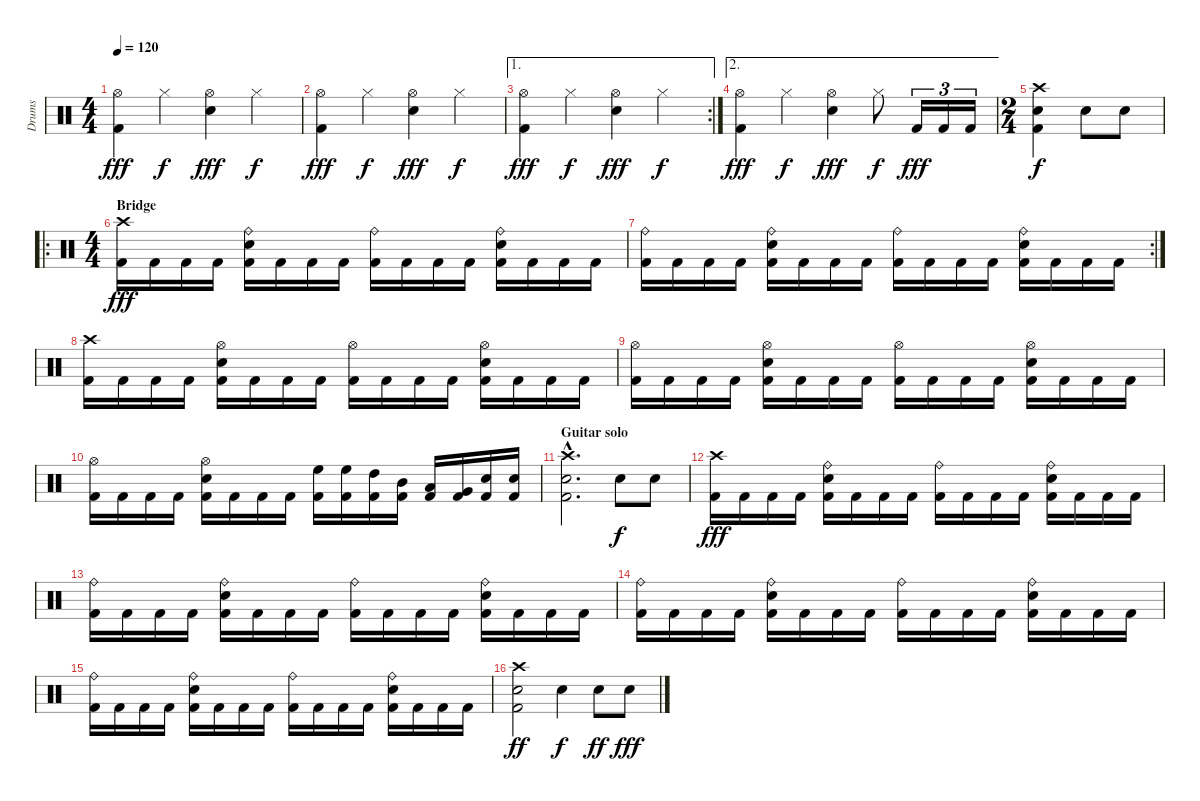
\track ("Drums" "Drums") {instrument percussion}
\staff {score}
\articulation defaults
\ts (4 4)
\tempo 120
\clef neutral
\ks c
("Hi-Hat (open)" "Kick (hit) 2").4{dy fff} "Hi-Hat (closed)".4{dy f} ("Hi-Hat (open)" "Electric Snare (hit)").4{dy fff} "Hi-Hat (closed)".4{dy f} |
("Hi-Hat (open)" "Kick (hit) 2").4{dy fff} "Hi-Hat (closed)".4{dy f} ("Hi-Hat (open)" "Electric Snare (hit)").4{dy fff} "Hi-Hat (closed)".4{dy f} |
\ae 1
\rc 2
("Hi-Hat (open)" "Kick (hit) 2").4{dy fff} "Hi-Hat (closed)".4{dy f} ("Hi-Hat (open)" "Electric Snare (hit)").4{dy fff} "Hi-Hat (closed)".4{dy f} |
\ae 2
("Hi-Hat (open)" "Kick (hit) 2").4{dy fff} "Hi-Hat (closed)".4{dy f} ("Hi-Hat (open)" "Electric Snare (hit)").4{dy fff} "Hi-Hat (closed)".8{dy f} "Kick (hit) 2".16{tu (3 2) dy fff} "Kick (hit) 2".16{tu (3 2)} "Kick (hit) 2".16{tu (3 2)} |
\ts (2 4)
("Crash high (hit)" "Kick (hit) 2" "Electric Snare (hit)").4{dy f} "Electric Snare (hit)".8 "Electric Snare (hit)".8 |
\ro
\ts (4 4)
\section ("" "Bridge")
("Kick (hit) 2" "Crash high (hit)").16{dy fff} "Kick (hit) 2".16 "Kick (hit) 2".16 "Kick (hit) 2".16 ("Kick (hit) 2" "Electric Snare (hit)" "Ride (bell)").16 "Kick (hit) 2".16 "Kick (hit) 2".16 "Kick (hit) 2".16 ("Kick (hit) 2" "Ride (bell)").16 "Kick (hit) 2".16 "Kick (hit) 2".16 "Kick (hit) 2".16 ("Kick (hit) 2" "Electric Snare (hit)" "Ride (bell)").16 "Kick (hit) 2".16 "Kick (hit) 2".16 "Kick (hit) 2".16 |
\rc 2
("Kick (hit) 2" "Ride (bell)").16 "Kick (hit) 2".16 "Kick (hit) 2".16 "Kick (hit) 2".16 ("Kick (hit) 2" "Electric Snare (hit)" "Ride (bell)").16 "Kick (hit) 2".16 "Kick (hit) 2".16 "Kick (hit) 2".16 ("Kick (hit) 2" "Ride (bell)").16 "Kick (hit) 2".16 "Kick (hit) 2".16 "Kick (hit) 2".16 ("Kick (hit) 2" "Electric Snare (hit)" "Ride (bell)").16 "Kick (hit) 2".16 "Kick (hit) 2".16 "Kick (hit) 2".16 |
("Kick (hit) 2" "Crash high (hit)").16 "Kick (hit) 2".16 "Kick (hit) 2".16 "Kick (hit) 2".16 ("Kick (hit) 2" "Electric Snare (hit)" "Hi-Hat (open)").16 "Kick (hit) 2".16 "Kick (hit) 2".16 "Kick (hit) 2".16 ("Kick (hit) 2" "Hi-Hat (open)").16 "Kick (hit) 2".16 "Kick (hit) 2".16 "Kick (hit) 2".16 ("Kick (hit) 2" "Electric Snare (hit)" "Hi-Hat (open)").16 "Kick (hit) 2".16 "Kick (hit) 2".16 "Kick (hit) 2".16 |
("Kick (hit) 2" "Hi-Hat (open)").16 "Kick (hit) 2".16 "Kick (hit) 2".16 "Kick (hit) 2".16 ("Kick (hit) 2" "Electric Snare (hit)" "Hi-Hat (open)").16 "Kick (hit) 2".16 "Kick (hit) 2".16 "Kick (hit) 2".16 ("Kick (hit) 2" "Hi-Hat (open)").16 "Kick (hit) 2".16 "Kick (hit) 2".16 "Kick (hit) 2".16 ("Kick (hit) 2" "Electric Snare (hit)" "Hi-Hat (open)").16 "Kick (hit) 2".16 "Kick (hit) 2".16 "Kick (hit) 2".16 |
("Kick (hit) 2" "Hi-Hat (open)").16 "Kick (hit) 2".16 "Kick (hit) 2".16 "Kick (hit) 2".16 ("Kick (hit) 2" "Electric Snare (hit)" "Hi-Hat (open)").16 "Kick (hit) 2".16 "Kick (hit) 2".16 "Kick (hit) 2".16 ("Kick (hit) 2" "High Floor Tom (hit)").16 ("Kick (hit) 2" "High Floor Tom (hit)").16 ("Kick (hit) 2" "High Tom (hit)").16 ("Kick (hit) 2" "Mid Tom (hit)").16 ("Kick (hit) 2" "Low Floor Tom (hit)").16 ("Kick (hit) 2" "Very Low Tom (hit)").16 ("Kick (hit) 2" "Electric Snare (hit)").16 ("Kick (hit) 2" "Electric Snare (hit)").16 |
\section ("" "Guitar solo")
("Crash high (hit)"{hac} "Kick (hit) 2"{hac} "Electric Snare (hit)"{hac}).2{d} "Electric Snare (hit)".8{dy f} "Electric Snare (hit)".8 |
("Kick (hit) 2" "Crash high (hit)").16{dy fff} "Kick (hit) 2".16 "Kick (hit) 2".16 "Kick (hit) 2".16 ("Kick (hit) 2" "Electric Snare (hit)" "Ride (bell)").16 "Kick (hit) 2".16 "Kick (hit) 2".16 "Kick (hit) 2".16 ("Kick (hit) 2" "Ride (bell)").16 "Kick (hit) 2".16 "Kick (hit) 2".16 "Kick (hit) 2".16 ("Kick (hit) 2" "Electric Snare (hit)" "Ride (bell)").16 "Kick (hit) 2".16 "Kick (hit) 2".16 "Kick (hit) 2".16 |
("Kick (hit) 2" "Ride (bell)").16 "Kick (hit) 2".16 "Kick (hit) 2".16 "Kick (hit) 2".16 ("Kick (hit) 2" "Electric Snare (hit)" "Ride (bell)").16 "Kick (hit) 2".16 "Kick (hit) 2".16 "Kick (hit) 2".16 ("Kick (hit) 2" "Ride (bell)").16 "Kick (hit) 2".16 "Kick (hit) 2".16 "Kick (hit) 2".16 ("Kick (hit) 2" "Electric Snare (hit)" "Ride (bell)").16 "Kick (hit) 2".16 "Kick (hit) 2".16 "Kick (hit) 2".16 |
("Kick (hit) 2" "Ride (bell)").16 "Kick (hit) 2".16 "Kick (hit) 2".16 "Kick (hit) 2".16 ("Kick (hit) 2" "Electric Snare (hit)" "Ride (bell)").16 "Kick (hit) 2".16 "Kick (hit) 2".16 "Kick (hit) 2".16 ("Kick (hit) 2" "Ride (bell)").16 "Kick (hit) 2".16 "Kick (hit) 2".16 "Kick (hit) 2".16 ("Kick (hit) 2" "Electric Snare (hit)" "Ride (bell)").16 "Kick (hit) 2".16 "Kick (hit) 2".16 "Kick (hit) 2".16 |
("Kick (hit) 2" "Ride (bell)").16 "Kick (hit) 2".16 "Kick (hit) 2".16 "Kick (hit) 2".16 ("Kick (hit) 2" "Electric Snare (hit)" "Ride (bell)").16 "Kick (hit) 2".16 "Kick (hit) 2".16 "Kick (hit) 2".16 ("Kick (hit) 2" "Ride (bell)").16 "Kick (hit) 2".16 "Kick (hit) 2".16 "Kick (hit) 2".16 ("Kick (hit) 2" "Electric Snare (hit)" "Ride (bell)").16 "Kick (hit) 2".16 "Kick (hit) 2".16 "Kick (hit) 2".16 |
("Crash high (hit)" "Kick (hit) 2" "Electric Snare (hit)").2{dy ff} "Electric Snare (hit)".4{dy f} "Electric Snare (hit)".8{dy ff} "Electric Snare (hit)".8{dy fff}
